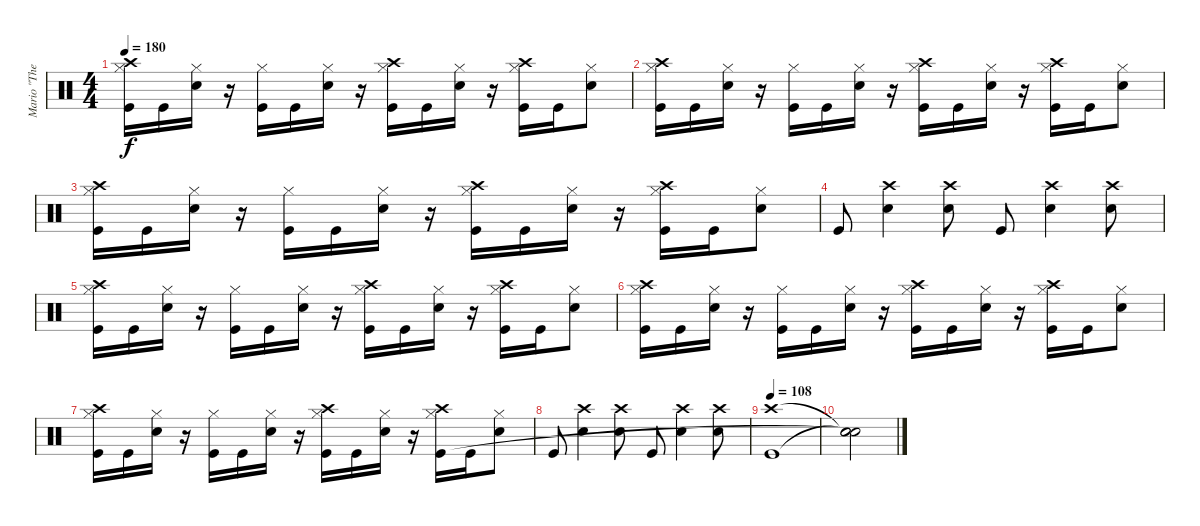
\track ("Mario \"The dremmel\" Hirt" "Mario \"The") {instrument percussion}
\staff {score}
\articulation defaults
\ts (4 4)
\tempo 180
\clef neutral
\ks c
("Crash high (hit)" "Hi-Hat (closed)" "Kick (hit)").16{dy f} "Kick (hit)".16 ("Hi-Hat (closed)" "Electric Snare (hit)").16 r.16 ("Hi-Hat (closed)" "Kick (hit)").16 "Kick (hit)".16 ("Hi-Hat (closed)" "Electric Snare (hit)").16 r.16 ("Crash high (hit)" "Hi-Hat (closed)" "Kick (hit)").16 "Kick (hit)".16 ("Hi-Hat (closed)" "Electric Snare (hit)").16 r.16 ("Crash high (hit)" "Hi-Hat (closed)" "Kick (hit)").16 "Kick (hit)".16 ("Hi-Hat (closed)" "Electric Snare (hit)").8 |
("Crash high (hit)" "Hi-Hat (closed)" "Kick (hit)").16 "Kick (hit)".16 ("Hi-Hat (closed)" "Electric Snare (hit)").16 r.16 ("Hi-Hat (closed)" "Kick (hit)").16 "Kick (hit)".16 ("Hi-Hat (closed)" "Electric Snare (hit)").16 r.16 ("Crash high (hit)" "Hi-Hat (closed)" "Kick (hit)").16 "Kick (hit)".16 ("Hi-Hat (closed)" "Electric Snare (hit)").16 r.16 ("Crash high (hit)" "Hi-Hat (closed)" "Kick (hit)").16 "Kick (hit)".16 ("Hi-Hat (closed)" "Electric Snare (hit)").8 |
("Crash high (hit)" "Hi-Hat (closed)" "Kick (hit)").16 "Kick (hit)".16 ("Hi-Hat (closed)" "Electric Snare (hit)").16 r.16 ("Hi-Hat (closed)" "Kick (hit)").16 "Kick (hit)".16 ("Hi-Hat (closed)" "Electric Snare (hit)").16 r.16 ("Crash high (hit)" "Hi-Hat (closed)" "Kick (hit)").16 "Kick (hit)".16 ("Hi-Hat (closed)" "Electric Snare (hit)").16 r.16 ("Crash high (hit)" "Hi-Hat (closed)" "Kick (hit)").16 "Kick (hit)".16 ("Hi-Hat (closed)" "Electric Snare (hit)").8 |
"Kick (hit)".8 ("Electric Snare (hit)" "Crash high (hit)").4 ("Electric Snare (hit)" "Crash high (hit)").8 "Kick (hit)".8 ("Electric Snare (hit)" "Crash high (hit)").4 ("Electric Snare (hit)" "Crash high (hit)").8 |
("Crash high (hit)" "Hi-Hat (closed)" "Kick (hit)").16 "Kick (hit)".16 ("Hi-Hat (closed)" "Electric Snare (hit)").16 r.16 ("Hi-Hat (closed)" "Kick (hit)").16 "Kick (hit)".16 ("Hi-Hat (closed)" "Electric Snare (hit)").16 r.16 ("Crash high (hit)" "Hi-Hat (closed)" "Kick (hit)").16 "Kick (hit)".16 ("Hi-Hat (closed)" "Electric Snare (hit)").16 r.16 ("Crash high (hit)" "Hi-Hat (closed)" "Kick (hit)").16 "Kick (hit)".16 ("Hi-Hat (closed)" "Electric Snare (hit)").8 |
("Crash high (hit)" "Hi-Hat (closed)" "Kick (hit)").16 "Kick (hit)".16 ("Hi-Hat (closed)" "Electric Snare (hit)").16 r.16 ("Hi-Hat (closed)" "Kick (hit)").16 "Kick (hit)".16 ("Hi-Hat (closed)" "Electric Snare (hit)").16 r.16 ("Crash high (hit)" "Hi-Hat (closed)" "Kick (hit)").16 "Kick (hit)".16 ("Hi-Hat (closed)" "Electric Snare (hit)").16 r.16 ("Crash high (hit)" "Hi-Hat (closed)" "Kick (hit)").16 "Kick (hit)".16 ("Hi-Hat (closed)" "Electric Snare (hit)").8 |
("Crash high (hit)" "Hi-Hat (closed)" "Kick (hit)").16 "Kick (hit)".16 ("Hi-Hat (closed)" "Electric Snare (hit)").16 r.16 ("Hi-Hat (closed)" "Kick (hit)").16 "Kick (hit)".16 ("Hi-Hat (closed)" "Electric Snare (hit)").16 r.16 ("Crash high (hit)" "Hi-Hat (closed)" "Kick (hit)").16 "Kick (hit)".16 ("Hi-Hat (closed)" "Electric Snare (hit)").16 r.16 ("Crash high (hit)" "Hi-Hat (closed)" "Kick (hit)").16 "Kick (hit)".16 ("Hi-Hat (closed)" "Electric Snare (hit)").8 |
"Kick (hit)".8 ("Electric Snare (hit)" "Crash high (hit)").4 ("Electric Snare (hit)" "Crash high (hit)").8 "Kick (hit)".8 ("Electric Snare (hit)" "Crash high (hit)").4 ("Electric Snare (hit)" "Crash high (hit)").8 |
\tempo 108
("Crash high (hit)" "Kick (hit)").1 |
("Snare (hit)"{t} "Snare (hit)"{t} "Snare (hit)"{t}).2
